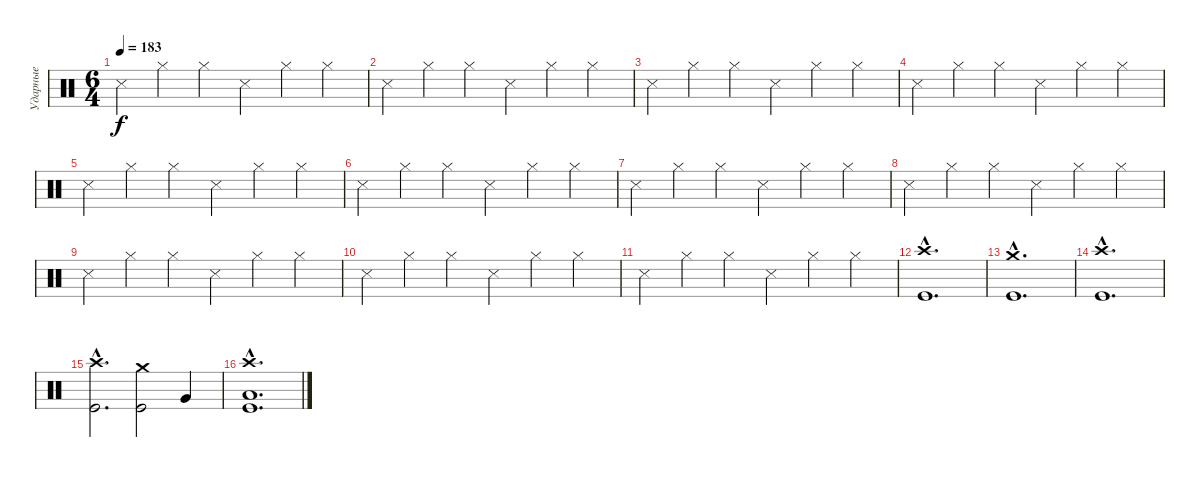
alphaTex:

\track ("Ударные" "Ударные") {instrument percussion}
\staff {score}
\articulation defaults
\ts (6 4)
\tempo 183
\clef neutral
\ks c "Snare (side stick) 3".4{dy f} "Hi-Hat (closed)".4 "Hi-Hat (closed)".4 "Snare (side stick) 3".4 "Hi-Hat (closed)".4 "Hi-Hat (closed)".4
|
"Snare (side stick) 3".4 "Hi-Hat (closed)".4 "Hi-Hat (closed)".4 "Snare (side stick) 3".4 "Hi-Hat (closed)".4 "Hi-Hat (closed)".4 |
"Snare (side stick) 3".4 "Hi-Hat (closed)".4 "Hi-Hat (closed)".4 "Snare (side stick) 3".4 "Hi-Hat (closed)".4 "Hi-Hat (closed)".4 |
"Snare (side stick) 3".4 "Hi-Hat (closed)".4 "Hi-Hat (closed)".4 "Snare (side stick) 3".4 "Hi-Hat (closed)".4 "Hi-Hat (closed)".4 |
"Snare (side stick) 3".4 "Hi-Hat (closed)".4 "Hi-Hat (closed)".4 "Snare (side stick) 3".4 "Hi-Hat (closed)".4 "Hi-Hat (closed)".4 |
"Snare (side stick) 3".4 "Hi-Hat (closed)".4 "Hi-Hat (closed)".4 "Snare (side stick) 3".4 "Hi-Hat (closed)".4 "Hi-Hat (closed)".4 |
"Snare (side stick) 3".4 "Hi-Hat (closed)".4 "Hi-Hat (closed)".4 "Snare (side stick) 3".4 "Hi-Hat (closed)".4 "Hi-Hat (closed)".4 |
"Snare (side stick) 3".4 "Hi-Hat (closed)".4 "Hi-Hat (closed)".4 "Snare (side stick) 3".4 "Hi-Hat (closed)".4 "Hi-Hat (closed)".4 |
"Snare (side stick) 3".4 "Hi-Hat (closed)".4 "Hi-Hat (closed)".4 "Snare (side stick) 3".4 "Hi-Hat (closed)".4 "Hi-Hat (closed)".4 |
"Snare (side stick) 3".4 "Hi-Hat (closed)".4 "Hi-Hat (closed)".4 "Snare (side stick) 3".4 "Hi-Hat (closed)".4 "Hi-Hat (closed)".4 |
"Snare (side stick) 3".4 "Hi-Hat (closed)".4 "Hi-Hat (closed)".4 "Snare (side stick) 3".4 "Hi-Hat (closed)".4 "Hi-Hat (closed)".4 |
("Crash high (hit)"{hac} "Kick (hit)"{hac}).1{d} |
("Crash medium (hit)"{hac} "Kick (hit)"{hac}).1{d} |
("Crash high (hit)"{hac} "Kick (hit)"{hac}).1{d} |
("Crash high (hit)"{hac} "Kick (hit)"{hac}).2{d} ("Crash medium (hit)" "Kick (hit)").2 "Very Low Tom (hit)".4 |
("Crash high (hit)"{hac} "Low Tom (hit)"{hac} "Kick (hit)"{hac}).1{d}
